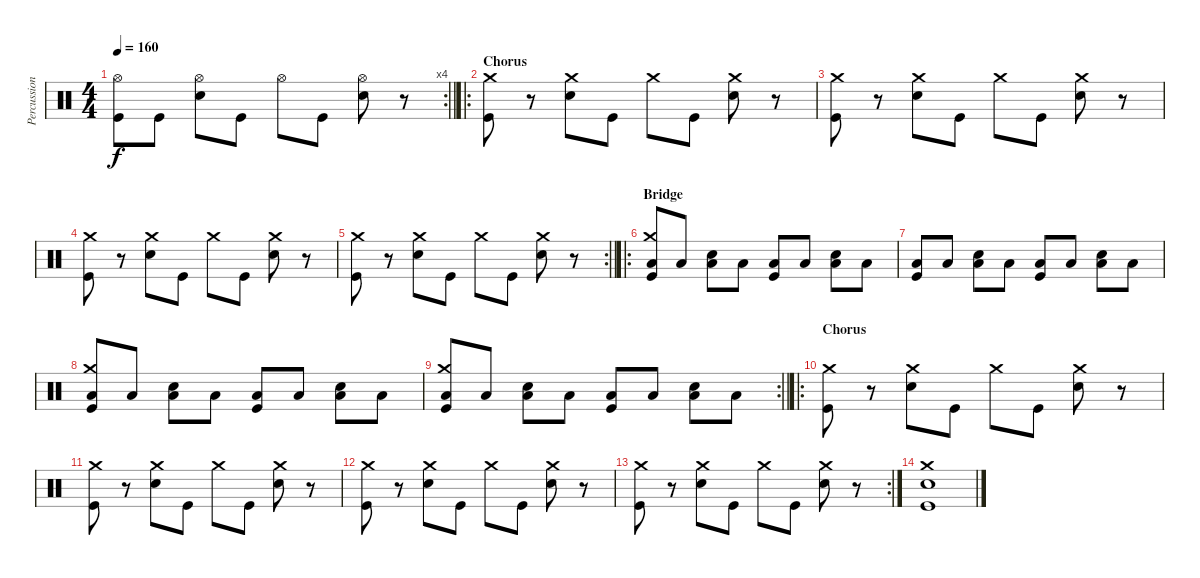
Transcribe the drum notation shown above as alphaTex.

\track ("Percussion" "Percussion") {instrument percussion}
\staff {score}
\articulation defaults
\rc 4
\ts (4 4)
\tempo 160
\clef neutral
\barLineRight lightlight
\ks c
("Hi-Hat (open)" "Kick (hit)").8{dy f} "Kick (hit)".8 ("Hi-Hat (open)" "Snare (hit) 2").8 "Kick (hit)".8 "Hi-Hat (open)".8 "Kick (hit)".8 ("Hi-Hat (open)" "Snare (hit) 2").8 r.8 |
\ro
\section ("" "Chorus")
("Crash medium (hit)" "Kick (hit)").8 r.8 ("Crash medium (hit)" "Snare (hit) 2").8 "Kick (hit)".8 "Crash medium (hit)".8 "Kick (hit)".8 ("Crash medium (hit)" "Snare (hit) 2").8 r.8 |
("Crash medium (hit)" "Kick (hit)").8 r.8 ("Crash medium (hit)" "Snare (hit) 2").8 "Kick (hit)".8 "Crash medium (hit)".8 "Kick (hit)".8 ("Crash medium (hit)" "Snare (hit) 2").8 r.8 |
("Crash medium (hit)" "Kick (hit)").8 r.8 ("Crash medium (hit)" "Snare (hit) 2").8 "Kick (hit)".8 "Crash medium (hit)".8 "Kick (hit)".8 ("Crash medium (hit)" "Snare (hit) 2").8 r.8 |
\rc 2
\barLineRight lightlight
("Crash medium (hit)" "Kick (hit)").8 r.8 ("Crash medium (hit)" "Snare (hit) 2").8 "Kick (hit)".8 "Crash medium (hit)".8 "Kick (hit)".8 ("Crash medium (hit)" "Snare (hit) 2").8 r.8 |
\ro
\section ("" "Bridge")
("Crash medium (hit)" "Low Floor Tom (hit)" "Kick (hit)").8 "Low Floor Tom (hit)".8 ("Snare (hit) 2" "Low Floor Tom (hit)").8 "Low Floor Tom (hit)".8 ("Low Floor Tom (hit)" "Kick (hit)").8 "Low Floor Tom (hit)".8 ("Snare (hit) 2" "Low Floor Tom (hit)").8 "Low Floor Tom (hit)".8 |
("Low Floor Tom (hit)" "Kick (hit)").8 "Low Floor Tom (hit)".8 ("Snare (hit) 2" "Low Floor Tom (hit)").8 "Low Floor Tom (hit)".8 ("Low Floor Tom (hit)" "Kick (hit)").8 "Low Floor Tom (hit)".8 ("Snare (hit) 2" "Low Floor Tom (hit)").8 "Low Floor Tom (hit)".8 |
("Crash medium (hit)" "Low Floor Tom (hit)" "Kick (hit)").8 "Low Floor Tom (hit)".8 ("Snare (hit) 2" "Low Floor Tom (hit)").8 "Low Floor Tom (hit)".8 ("Low Floor Tom (hit)" "Kick (hit)").8 "Low Floor Tom (hit)".8 ("Snare (hit) 2" "Low Floor Tom (hit)").8 "Low Floor Tom (hit)".8 |
\rc 2
\barLineRight lightlight
("Crash medium (hit)" "Low Floor Tom (hit)" "Kick (hit)").8 "Low Floor Tom (hit)".8 ("Snare (hit) 2" "Low Floor Tom (hit)").8 "Low Floor Tom (hit)".8 ("Low Floor Tom (hit)" "Kick (hit)").8 "Low Floor Tom (hit)".8 ("Snare (hit) 2" "Low Floor Tom (hit)").8 "Low Floor Tom (hit)".8 |
\ro
\section ("" "Chorus")
("Crash medium (hit)" "Kick (hit)").8 r.8 ("Crash medium (hit)" "Snare (hit) 2").8 "Kick (hit)".8 "Crash medium (hit)".8 "Kick (hit)".8 ("Crash medium (hit)" "Snare (hit) 2").8 r.8 |
("Crash medium (hit)" "Kick (hit)").8 r.8 ("Crash medium (hit)" "Snare (hit) 2").8 "Kick (hit)".8 "Crash medium (hit)".8 "Kick (hit)".8 ("Crash medium (hit)" "Snare (hit) 2").8 r.8 |
("Crash medium (hit)" "Kick (hit)").8 r.8 ("Crash medium (hit)" "Snare (hit) 2").8 "Kick (hit)".8 "Crash medium (hit)".8 "Kick (hit)".8 ("Crash medium (hit)" "Snare (hit) 2").8 r.8 |
\rc 2
("Crash medium (hit)" "Kick (hit)").8 r.8 ("Crash medium (hit)" "Snare (hit) 2").8 "Kick (hit)".8 "Crash medium (hit)".8 "Kick (hit)".8 ("Crash medium (hit)" "Snare (hit) 2").8 r.8 |
("Crash medium (hit)" "Snare (hit) 2" "Kick (hit)").1
